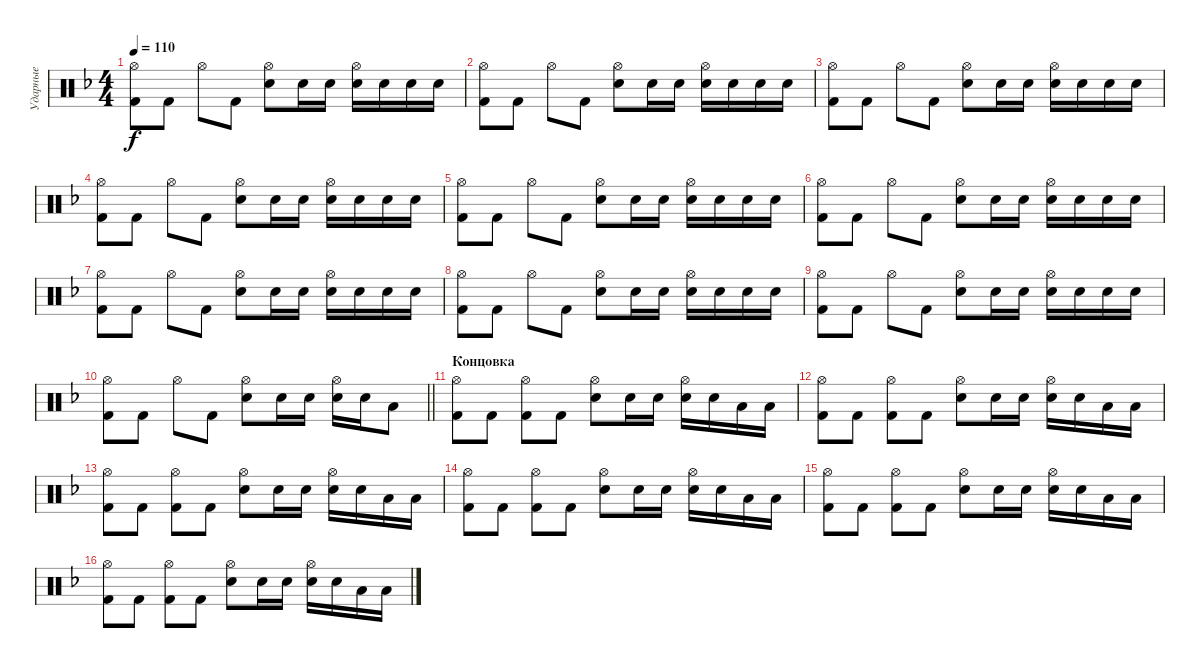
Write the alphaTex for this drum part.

\track ("Ударные" "Ударные") {instrument percussion}
\staff {score}
\articulation defaults
\ts (4 4)
\tempo 110
\clef neutral
\ks dminor
("Hi-Hat (open)" "Kick (hit) 2").8{dy f} "Kick (hit) 2".8 "Hi-Hat (open)".8 "Kick (hit) 2".8 ("Hi-Hat (open)" "Electric Snare (hit)").8 "Electric Snare (hit)".16 "Electric Snare (hit)".16 ("Hi-Hat (open)" "Electric Snare (hit)").16 "Electric Snare (hit)".16 "Electric Snare (hit)".16 "Electric Snare (hit)".16 |
("Hi-Hat (open)" "Kick (hit) 2").8 "Kick (hit) 2".8 "Hi-Hat (open)".8 "Kick (hit) 2".8 ("Hi-Hat (open)" "Electric Snare (hit)").8 "Electric Snare (hit)".16 "Electric Snare (hit)".16 ("Hi-Hat (open)" "Electric Snare (hit)").16 "Electric Snare (hit)".16 "Electric Snare (hit)".16 "Electric Snare (hit)".16 |
("Hi-Hat (open)" "Kick (hit) 2").8 "Kick (hit) 2".8 "Hi-Hat (open)".8 "Kick (hit) 2".8 ("Hi-Hat (open)" "Electric Snare (hit)").8 "Electric Snare (hit)".16 "Electric Snare (hit)".16 ("Hi-Hat (open)" "Electric Snare (hit)").16 "Electric Snare (hit)".16 "Electric Snare (hit)".16 "Electric Snare (hit)".16 |
("Hi-Hat (open)" "Kick (hit) 2").8 "Kick (hit) 2".8 "Hi-Hat (open)".8 "Kick (hit) 2".8 ("Hi-Hat (open)" "Electric Snare (hit)").8 "Electric Snare (hit)".16 "Electric Snare (hit)".16 ("Hi-Hat (open)" "Electric Snare (hit)").16 "Electric Snare (hit)".16 "Electric Snare (hit)".16 "Electric Snare (hit)".16 |
("Hi-Hat (open)" "Kick (hit) 2").8 "Kick (hit) 2".8 "Hi-Hat (open)".8 "Kick (hit) 2".8 ("Hi-Hat (open)" "Electric Snare (hit)").8 "Electric Snare (hit)".16 "Electric Snare (hit)".16 ("Hi-Hat (open)" "Electric Snare (hit)").16 "Electric Snare (hit)".16 "Electric Snare (hit)".16 "Electric Snare (hit)".16 |
("Hi-Hat (open)" "Kick (hit) 2").8 "Kick (hit) 2".8 "Hi-Hat (open)".8 "Kick (hit) 2".8 ("Hi-Hat (open)" "Electric Snare (hit)").8 "Electric Snare (hit)".16 "Electric Snare (hit)".16 ("Hi-Hat (open)" "Electric Snare (hit)").16 "Electric Snare (hit)".16 "Electric Snare (hit)".16 "Electric Snare (hit)".16 |
("Hi-Hat (open)" "Kick (hit) 2").8 "Kick (hit) 2".8 "Hi-Hat (open)".8 "Kick (hit) 2".8 ("Hi-Hat (open)" "Electric Snare (hit)").8 "Electric Snare (hit)".16 "Electric Snare (hit)".16 ("Hi-Hat (open)" "Electric Snare (hit)").16 "Electric Snare (hit)".16 "Electric Snare (hit)".16 "Electric Snare (hit)".16 |
("Hi-Hat (open)" "Kick (hit) 2").8 "Kick (hit) 2".8 "Hi-Hat (open)".8 "Kick (hit) 2".8 ("Hi-Hat (open)" "Electric Snare (hit)").8 "Electric Snare (hit)".16 "Electric Snare (hit)".16 ("Hi-Hat (open)" "Electric Snare (hit)").16 "Electric Snare (hit)".16 "Electric Snare (hit)".16 "Electric Snare (hit)".16 |
("Hi-Hat (open)" "Kick (hit) 2").8 "Kick (hit) 2".8 "Hi-Hat (open)".8 "Kick (hit) 2".8 ("Hi-Hat (open)" "Electric Snare (hit)").8 "Electric Snare (hit)".16 "Electric Snare (hit)".16 ("Hi-Hat (open)" "Electric Snare (hit)").16 "Electric Snare (hit)".16 "Electric Snare (hit)".16 "Electric Snare (hit)".16 |
\barLineRight lightlight
("Hi-Hat (open)" "Kick (hit) 2").8 "Kick (hit) 2".8 "Hi-Hat (open)".8 "Kick (hit) 2".8 ("Hi-Hat (open)" "Electric Snare (hit)").8 "Electric Snare (hit)".16 "Electric Snare (hit)".16 ("Hi-Hat (open)" "Electric Snare (hit)").16 "Electric Snare (hit)".16 "Low Tom (hit)".8 |
\section ("" "Концовка")
("Hi-Hat (open)" "Kick (hit) 2").8 "Kick (hit) 2".8 ("Hi-Hat (open)" "Kick (hit) 2").8 "Kick (hit) 2".8 ("Hi-Hat (open)" "Electric Snare (hit)").8 "Electric Snare (hit)".16 "Electric Snare (hit)".16 ("Hi-Hat (open)" "Electric Snare (hit)").16 "Electric Snare (hit)".16 "Low Tom (hit)".16 "Low Tom (hit)".16 |
("Hi-Hat (open)" "Kick (hit) 2").8 "Kick (hit) 2".8 ("Hi-Hat (open)" "Kick (hit) 2").8 "Kick (hit) 2".8 ("Hi-Hat (open)" "Electric Snare (hit)").8 "Electric Snare (hit)".16 "Electric Snare (hit)".16 ("Hi-Hat (open)" "Electric Snare (hit)").16 "Electric Snare (hit)".16 "Low Tom (hit)".16 "Low Tom (hit)".16 |
("Hi-Hat (open)" "Kick (hit) 2").8 "Kick (hit) 2".8 ("Hi-Hat (open)" "Kick (hit) 2").8 "Kick (hit) 2".8 ("Hi-Hat (open)" "Electric Snare (hit)").8 "Electric Snare (hit)".16 "Electric Snare (hit)".16 ("Hi-Hat (open)" "Electric Snare (hit)").16 "Electric Snare (hit)".16 "Low Tom (hit)".16 "Low Tom (hit)".16 |
("Hi-Hat (open)" "Kick (hit) 2").8 "Kick (hit) 2".8 ("Hi-Hat (open)" "Kick (hit) 2").8 "Kick (hit) 2".8 ("Hi-Hat (open)" "Electric Snare (hit)").8 "Electric Snare (hit)".16 "Electric Snare (hit)".16 ("Hi-Hat (open)" "Electric Snare (hit)").16 "Electric Snare (hit)".16 "Low Tom (hit)".16 "Low Tom (hit)".16 |
("Hi-Hat (open)" "Kick (hit) 2").8 "Kick (hit) 2".8 ("Hi-Hat (open)" "Kick (hit) 2").8 "Kick (hit) 2".8 ("Hi-Hat (open)" "Electric Snare (hit)").8 "Electric Snare (hit)".16 "Electric Snare (hit)".16 ("Hi-Hat (open)" "Electric Snare (hit)").16 "Electric Snare (hit)".16 "Low Tom (hit)".16 "Low Tom (hit)".16 |
("Hi-Hat (open)" "Kick (hit) 2").8 "Kick (hit) 2".8 ("Hi-Hat (open)" "Kick (hit) 2").8 "Kick (hit) 2".8 ("Hi-Hat (open)" "Electric Snare (hit)").8 "Electric Snare (hit)".16 "Electric Snare (hit)".16 ("Hi-Hat (open)" "Electric Snare (hit)").16 "Electric Snare (hit)".16 "Low Tom (hit)".16 "Low Tom (hit)".16
